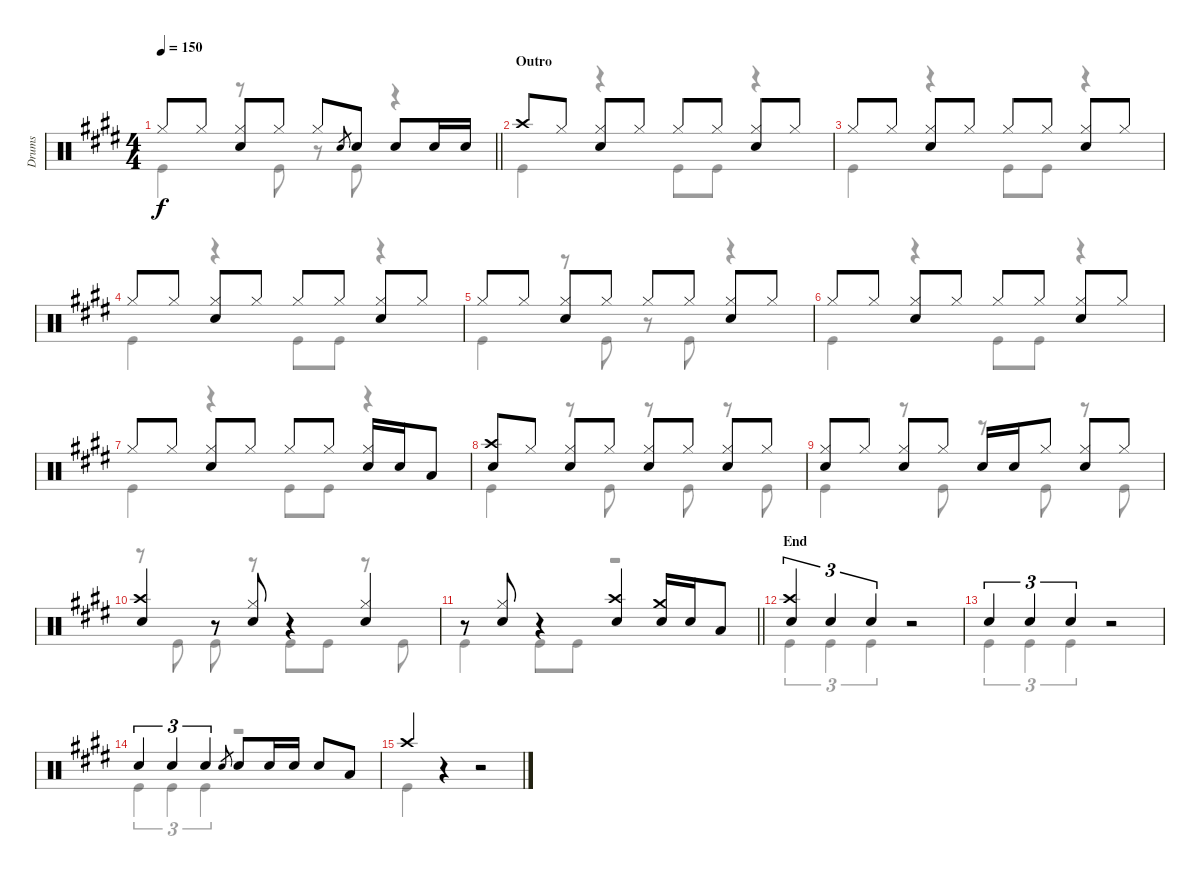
\track ("Drums" "Drums") {instrument percussion}
\staff {score}
\articulation defaults
\voice
\ts (4 4)
\tempo 150
\clef neutral
\barLineRight lightlight
\ks e "Hi-Hat (closed)".8{dy f} "Hi-Hat (closed)".8
("Hi-Hat (closed)" "Snare (hit) 2").8 "Hi-Hat (closed)".8 "Hi-Hat (closed)".8 "Snare (hit) 2".8{gr} "Snare (hit) 2".8 "Snare (hit) 2".8 "Snare (hit) 2".16 "Snare (hit) 2".16 |
\section ("" "Outro")
"Crash high (hit)".8 "Hi-Hat (closed)".8 ("Hi-Hat (closed)" "Snare (hit) 2").8 "Hi-Hat (closed)".8 "Hi-Hat (closed)".8 "Hi-Hat (closed)".8 ("Hi-Hat (closed)" "Snare (hit) 2").8 "Hi-Hat (closed)".8 |
"Hi-Hat (closed)".8 "Hi-Hat (closed)".8 ("Hi-Hat (closed)" "Snare (hit) 2").8 "Hi-Hat (closed)".8 "Hi-Hat (closed)".8 "Hi-Hat (closed)".8 ("Hi-Hat (closed)" "Snare (hit) 2").8 "Hi-Hat (closed)".8 |
"Hi-Hat (closed)".8 "Hi-Hat (closed)".8 ("Hi-Hat (closed)" "Snare (hit) 2").8 "Hi-Hat (closed)".8 "Hi-Hat (closed)".8 "Hi-Hat (closed)".8 ("Hi-Hat (closed)" "Snare (hit) 2").8 "Hi-Hat (closed)".8 |
"Hi-Hat (closed)".8 "Hi-Hat (closed)".8 ("Hi-Hat (closed)" "Snare (hit) 2").8 "Hi-Hat (closed)".8 "Hi-Hat (closed)".8 "Hi-Hat (closed)".8 ("Hi-Hat (closed)" "Snare (hit) 2").8 "Hi-Hat (closed)".8 |
"Hi-Hat (closed)".8 "Hi-Hat (closed)".8 ("Hi-Hat (closed)" "Snare (hit) 2").8 "Hi-Hat (closed)".8 "Hi-Hat (closed)".8 "Hi-Hat (closed)".8 ("Hi-Hat (closed)" "Snare (hit) 2").8 "Hi-Hat (closed)".8 |
"Hi-Hat (closed)".8 "Hi-Hat (closed)".8 ("Hi-Hat (closed)" "Snare (hit) 2").8 "Hi-Hat (closed)".8 "Hi-Hat (closed)".8 "Hi-Hat (closed)".8 ("Hi-Hat (closed)" "Snare (hit) 2").16 "Snare (hit) 2".16 "Low Tom (hit)".8 |
("Crash high (hit)" "Snare (hit) 2").8 "Hi-Hat (closed)".8 ("Hi-Hat (closed)" "Snare (hit) 2").8 "Hi-Hat (closed)".8 ("Hi-Hat (closed)" "Snare (hit) 2").8 "Hi-Hat (closed)".8 ("Hi-Hat (closed)" "Snare (hit) 2").8 "Hi-Hat (closed)".8 |
("Hi-Hat (closed)" "Snare (hit) 2").8 "Hi-Hat (closed)".8 ("Hi-Hat (closed)" "Snare (hit) 2").8 "Hi-Hat (closed)".8 "Snare (hit) 2".16 "Snare (hit) 2".16 "Hi-Hat (closed)".8 ("Hi-Hat (closed)" "Snare (hit) 2").8 "Hi-Hat (closed)".8 |
("Crash high (hit)" "Snare (hit) 2").4 r.8 ("Hi-Hat (closed)" "Snare (hit) 2").8 r.4 ("Hi-Hat (closed)" "Snare (hit) 2").4 |
\barLineRight lightlight
r.8 ("Hi-Hat (closed)" "Snare (hit) 2").8 r.4 ("Crash high (hit)" "Snare (hit) 2").4 ("Crash medium (hit)" "Snare (hit) 2").16 "Snare (hit) 2".16 "Low Tom (hit)".8 |
\section ("" "End")
("Crash high (hit)" "Snare (hit) 2").4{tu (3 2)} "Snare (hit) 2".4{tu (3 2)} "Snare (hit) 2".4{tu (3 2)} r.2 |
"Snare (hit) 2".4{tu (3 2)} "Snare (hit) 2".4{tu (3 2)} "Snare (hit) 2".4{tu (3 2)} r.2 |
"Snare (hit) 2".4{tu (3 2)} "Snare (hit) 2".4{tu (3 2)} "Snare (hit) 2".4{tu (3 2)} "Snare (hit) 2".8{gr} "Snare (hit) 2".8 "Snare (hit) 2".16 "Snare (hit) 2".16 "Snare (hit) 2".8 "Low Tom (hit)".8 |
"Crash high (hit)".4 r.4 r.2
\voice
\clef neutral
\ottava regular
\simile none
\barLineRight lightlight
\ks e "Kick (hit)".4{dy f}
r.8 "Kick (hit)".8 r.8 "Kick (hit)".8 r.4 |
"Kick (hit)".4 r.4 "Kick (hit)".8 "Kick (hit)".8 r.4 |
"Kick (hit)".4 r.4 "Kick (hit)".8 "Kick (hit)".8 r.4 |
"Kick (hit)".4 r.4 "Kick (hit)".8 "Kick (hit)".8 r.4 |
"Kick (hit)".4 r.8 "Kick (hit)".8 r.8 "Kick (hit)".8 r.4 |
"Kick (hit)".4 r.4 "Kick (hit)".8 "Kick (hit)".8 r.4 |
"Kick (hit)".4 r.4 "Kick (hit)".8 "Kick (hit)".8 r.4 |
"Kick (hit)".4 r.8 "Kick (hit)".8 r.8 "Kick (hit)".8 r.8 "Kick (hit)".8 |
"Kick (hit)".4 r.8 "Kick (hit)".8 r.8 "Kick (hit)".8 r.8 "Kick (hit)".8 |
r.8 "Kick (hit)".8 "Kick (hit)".8 r.8 "Kick (hit)".8 "Kick (hit)".8 r.8 "Kick (hit)".8 |
\barLineRight lightlight "Kick (hit)".4 "Kick (hit)".8 "Kick (hit)".8
r.2 |
"Kick (hit)".4{tu (3 2)} "Kick (hit)".4{tu (3 2)} "Kick (hit)".4{tu (3 2)} r.2 |
"Kick (hit)".4{tu (3 2)} "Kick (hit)".4{tu (3 2)} "Kick (hit)".4{tu (3 2)} r.2 |
"Kick (hit)".4{tu (3 2)} "Kick (hit)".4{tu (3 2)} "Kick (hit)".4{tu (3 2)} r.2 |
"Kick (hit)".4 r.4 r.2
